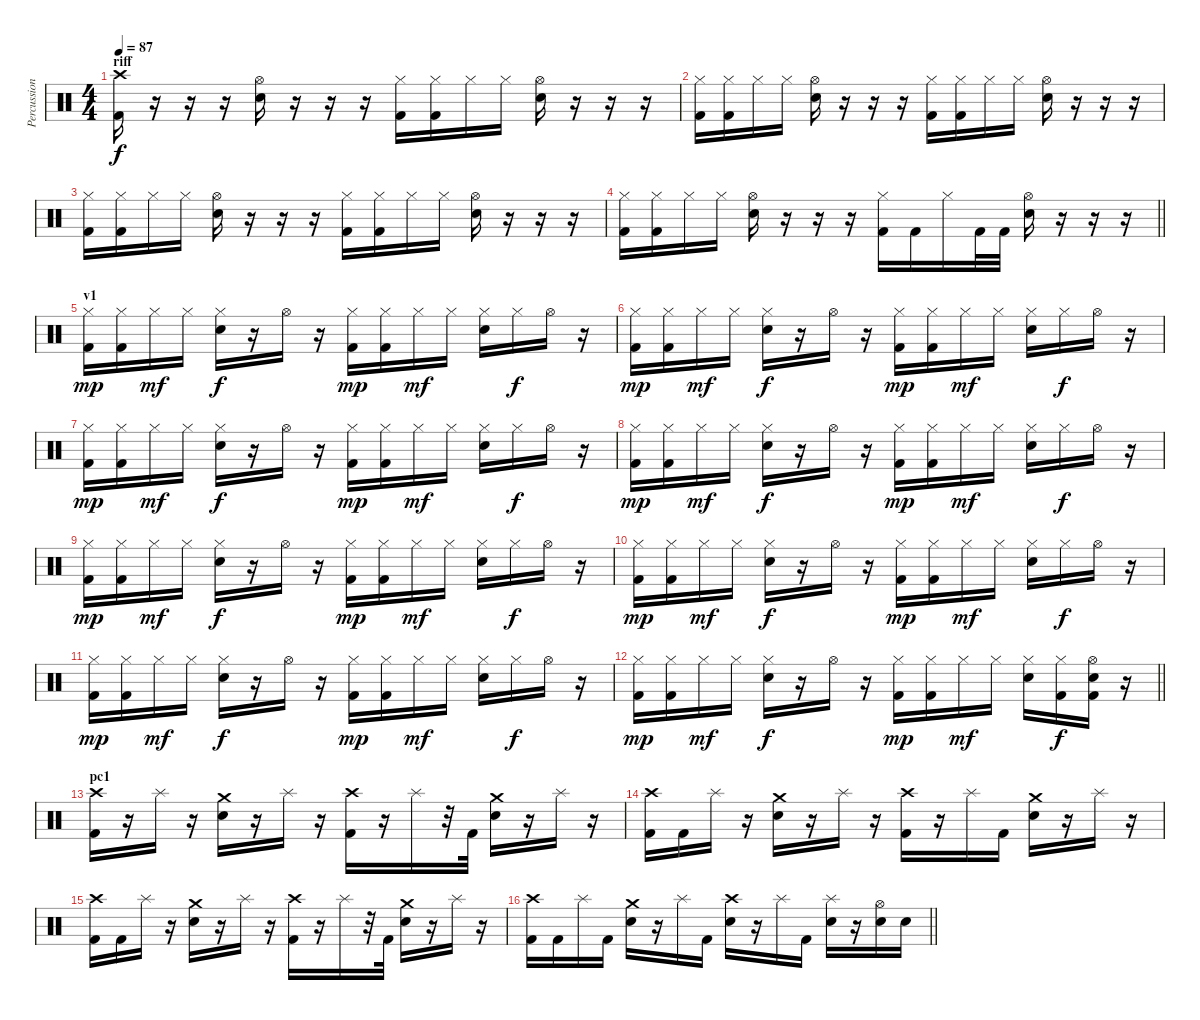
\track ("Percussion" "Percussion") {instrument percussion}
\staff {score}
\articulation defaults
\ts (4 4)
\section ("" "riff")
\tempo 87
\clef neutral
\ks c
("Crash high (hit)" "Kick (hit) 2").16{dy f} r.16 r.16 r.16 ("Hi-Hat (open)" "Electric Snare (hit)").16 r.16 r.16 r.16 ("Hi-Hat (closed)" "Kick (hit) 2").16 ("Hi-Hat (closed)" "Kick (hit) 2").16 "Hi-Hat (closed)".16 "Hi-Hat (closed)".16 ("Hi-Hat (open)" "Electric Snare (hit)").16 r.16 r.16 r.16 |
("Hi-Hat (closed)" "Kick (hit) 2").16 ("Hi-Hat (closed)" "Kick (hit) 2").16 "Hi-Hat (closed)".16 "Hi-Hat (closed)".16 ("Hi-Hat (open)" "Electric Snare (hit)").16 r.16 r.16 r.16 ("Hi-Hat (closed)" "Kick (hit) 2").16 ("Hi-Hat (closed)" "Kick (hit) 2").16 "Hi-Hat (closed)".16 "Hi-Hat (closed)".16 ("Hi-Hat (open)" "Electric Snare (hit)").16 r.16 r.16 r.16 |
("Hi-Hat (closed)" "Kick (hit) 2").16 ("Hi-Hat (closed)" "Kick (hit) 2").16 "Hi-Hat (closed)".16 "Hi-Hat (closed)".16 ("Hi-Hat (open)" "Electric Snare (hit)").16 r.16 r.16 r.16 ("Hi-Hat (closed)" "Kick (hit) 2").16 ("Hi-Hat (closed)" "Kick (hit) 2").16 "Hi-Hat (closed)".16 "Hi-Hat (closed)".16 ("Hi-Hat (open)" "Electric Snare (hit)").16 r.16 r.16 r.16 |
\barLineRight lightlight
("Hi-Hat (closed)" "Kick (hit) 2").16 ("Hi-Hat (closed)" "Kick (hit) 2").16 "Hi-Hat (closed)".16 "Hi-Hat (closed)".16 ("Hi-Hat (open)" "Electric Snare (hit)").16 r.16 r.16 r.16 ("Hi-Hat (closed)" "Kick (hit) 2").16 "Kick (hit) 2".16 "Hi-Hat (closed)".16 "Kick (hit) 2".32 "Kick (hit) 2".32 ("Hi-Hat (open)" "Electric Snare (hit)").16 r.16 r.16 r.16 |
\section ("" "v1")
("Hi-Hat (closed)" "Kick (hit) 2").16{dy mp} ("Hi-Hat (closed)" "Kick (hit) 2").16 "Hi-Hat (closed)".16{dy mf} "Hi-Hat (closed)".16 ("Hi-Hat (closed)" "Electric Snare (hit)").16{dy f} r.16 "Hi-Hat (open)".16 r.16 ("Hi-Hat (closed)" "Kick (hit) 2").16{dy mp} ("Hi-Hat (closed)" "Kick (hit) 2").16 "Hi-Hat (closed)".16{dy mf} "Hi-Hat (closed)".16 ("Hi-Hat (closed)" "Electric Snare (hit)").16 "Hi-Hat (closed)".16{dy f} "Hi-Hat (open)".16 r.16 |
("Hi-Hat (closed)" "Kick (hit) 2").16{dy mp} ("Hi-Hat (closed)" "Kick (hit) 2").16 "Hi-Hat (closed)".16{dy mf} "Hi-Hat (closed)".16 ("Hi-Hat (closed)" "Electric Snare (hit)").16{dy f} r.16 "Hi-Hat (open)".16 r.16 ("Hi-Hat (closed)" "Kick (hit) 2").16{dy mp} ("Hi-Hat (closed)" "Kick (hit) 2").16 "Hi-Hat (closed)".16{dy mf} "Hi-Hat (closed)".16 ("Hi-Hat (closed)" "Electric Snare (hit)").16 "Hi-Hat (closed)".16{dy f} "Hi-Hat (open)".16 r.16 |
("Hi-Hat (closed)" "Kick (hit) 2").16{dy mp} ("Hi-Hat (closed)" "Kick (hit) 2").16 "Hi-Hat (closed)".16{dy mf} "Hi-Hat (closed)".16 ("Hi-Hat (closed)" "Electric Snare (hit)").16{dy f} r.16 "Hi-Hat (open)".16 r.16 ("Hi-Hat (closed)" "Kick (hit) 2").16{dy mp} ("Hi-Hat (closed)" "Kick (hit) 2").16 "Hi-Hat (closed)".16{dy mf} "Hi-Hat (closed)".16 ("Hi-Hat (closed)" "Electric Snare (hit)").16 "Hi-Hat (closed)".16{dy f} "Hi-Hat (open)".16 r.16 |
("Hi-Hat (closed)" "Kick (hit) 2").16{dy mp} ("Hi-Hat (closed)" "Kick (hit) 2").16 "Hi-Hat (closed)".16{dy mf} "Hi-Hat (closed)".16 ("Hi-Hat (closed)" "Electric Snare (hit)").16{dy f} r.16 "Hi-Hat (open)".16 r.16 ("Hi-Hat (closed)" "Kick (hit) 2").16{dy mp} ("Hi-Hat (closed)" "Kick (hit) 2").16 "Hi-Hat (closed)".16{dy mf} "Hi-Hat (closed)".16 ("Hi-Hat (closed)" "Electric Snare (hit)").16 "Hi-Hat (closed)".16{dy f} "Hi-Hat (open)".16 r.16 |
("Hi-Hat (closed)" "Kick (hit) 2").16{dy mp} ("Hi-Hat (closed)" "Kick (hit) 2").16 "Hi-Hat (closed)".16{dy mf} "Hi-Hat (closed)".16 ("Hi-Hat (closed)" "Electric Snare (hit)").16{dy f} r.16 "Hi-Hat (open)".16 r.16 ("Hi-Hat (closed)" "Kick (hit) 2").16{dy mp} ("Hi-Hat (closed)" "Kick (hit) 2").16 "Hi-Hat (closed)".16{dy mf} "Hi-Hat (closed)".16 ("Hi-Hat (closed)" "Electric Snare (hit)").16 "Hi-Hat (closed)".16{dy f} "Hi-Hat (open)".16 r.16 |
("Hi-Hat (closed)" "Kick (hit) 2").16{dy mp} ("Hi-Hat (closed)" "Kick (hit) 2").16 "Hi-Hat (closed)".16{dy mf} "Hi-Hat (closed)".16 ("Hi-Hat (closed)" "Electric Snare (hit)").16{dy f} r.16 "Hi-Hat (open)".16 r.16 ("Hi-Hat (closed)" "Kick (hit) 2").16{dy mp} ("Hi-Hat (closed)" "Kick (hit) 2").16 "Hi-Hat (closed)".16{dy mf} "Hi-Hat (closed)".16 ("Hi-Hat (closed)" "Electric Snare (hit)").16 "Hi-Hat (closed)".16{dy f} "Hi-Hat (open)".16 r.16 |
("Hi-Hat (closed)" "Kick (hit) 2").16{dy mp} ("Hi-Hat (closed)" "Kick (hit) 2").16 "Hi-Hat (closed)".16{dy mf} "Hi-Hat (closed)".16 ("Hi-Hat (closed)" "Electric Snare (hit)").16{dy f} r.16 "Hi-Hat (open)".16 r.16 ("Hi-Hat (closed)" "Kick (hit) 2").16{dy mp} ("Hi-Hat (closed)" "Kick (hit) 2").16 "Hi-Hat (closed)".16{dy mf} "Hi-Hat (closed)".16 ("Hi-Hat (closed)" "Electric Snare (hit)").16 "Hi-Hat (closed)".16{dy f} "Hi-Hat (open)".16 r.16 |
\barLineRight lightlight
("Hi-Hat (closed)" "Kick (hit) 2").16{dy mp} ("Hi-Hat (closed)" "Kick (hit) 2").16 "Hi-Hat (closed)".16{dy mf} "Hi-Hat (closed)".16 ("Hi-Hat (closed)" "Electric Snare (hit)").16{dy f} r.16 "Hi-Hat (open)".16 r.16 ("Hi-Hat (closed)" "Kick (hit) 2").16{dy mp} ("Hi-Hat (closed)" "Kick (hit) 2").16 "Hi-Hat (closed)".16{dy mf} "Hi-Hat (closed)".16 ("Hi-Hat (closed)" "Electric Snare (hit)").16 ("Hi-Hat (closed)" "Kick (hit) 2").16{dy f} ("Hi-Hat (open)" "Electric Snare (hit)" "Kick (hit) 2").16 r.16 |
\section ("" "pc1")
("Crash high (hit)" "Kick (hit) 2").16 r.16 "Splash (hit)".16 r.16 ("Crash medium (hit)" "Electric Snare (hit)").16 r.16 "Splash (hit)".16 r.16 ("Crash high (hit)" "Kick (hit) 2").16 r.16 "Splash (hit)".16 r.32 "Kick (hit) 2".32 ("Crash medium (hit)" "Electric Snare (hit)").16 r.16 "Splash (hit)".16 r.16 |
("Crash high (hit)" "Kick (hit) 2").16 "Kick (hit) 2".16 "Splash (hit)".16 r.16 ("Crash medium (hit)" "Electric Snare (hit)").16 r.16 "Splash (hit)".16 r.16 ("Crash high (hit)" "Kick (hit) 2").16 r.16 "Splash (hit)".16 "Kick (hit) 2".16 ("Crash medium (hit)" "Electric Snare (hit)").16 r.16 "Splash (hit)".16 r.16 |
("Crash high (hit)" "Kick (hit) 2").16 "Kick (hit) 2".16 "Splash (hit)".16 r.16 ("Crash medium (hit)" "Electric Snare (hit)").16 r.16 "Splash (hit)".16 r.16 ("Crash high (hit)" "Kick (hit) 2").16 r.16 "Splash (hit)".16 r.32 "Kick (hit) 2".32 ("Crash medium (hit)" "Electric Snare (hit)").16 r.16 "Splash (hit)".16 r.16 |
\barLineRight lightlight
("Crash high (hit)" "Kick (hit) 2").16 "Kick (hit) 2".16 "Splash (hit)".16 "Kick (hit) 2".16 ("Crash medium (hit)" "Electric Snare (hit)").16 r.16 "Splash (hit)".16 "Kick (hit) 2".16 ("Crash high (hit)" "Electric Snare (hit)").16 r.16 "Splash (hit)".16 "Kick (hit) 2".16 ("Splash (hit)" "Electric Snare (hit)").16 r.16 ("Hi-Hat (open)" "Electric Snare (hit)").16 "Electric Snare (hit)".16
